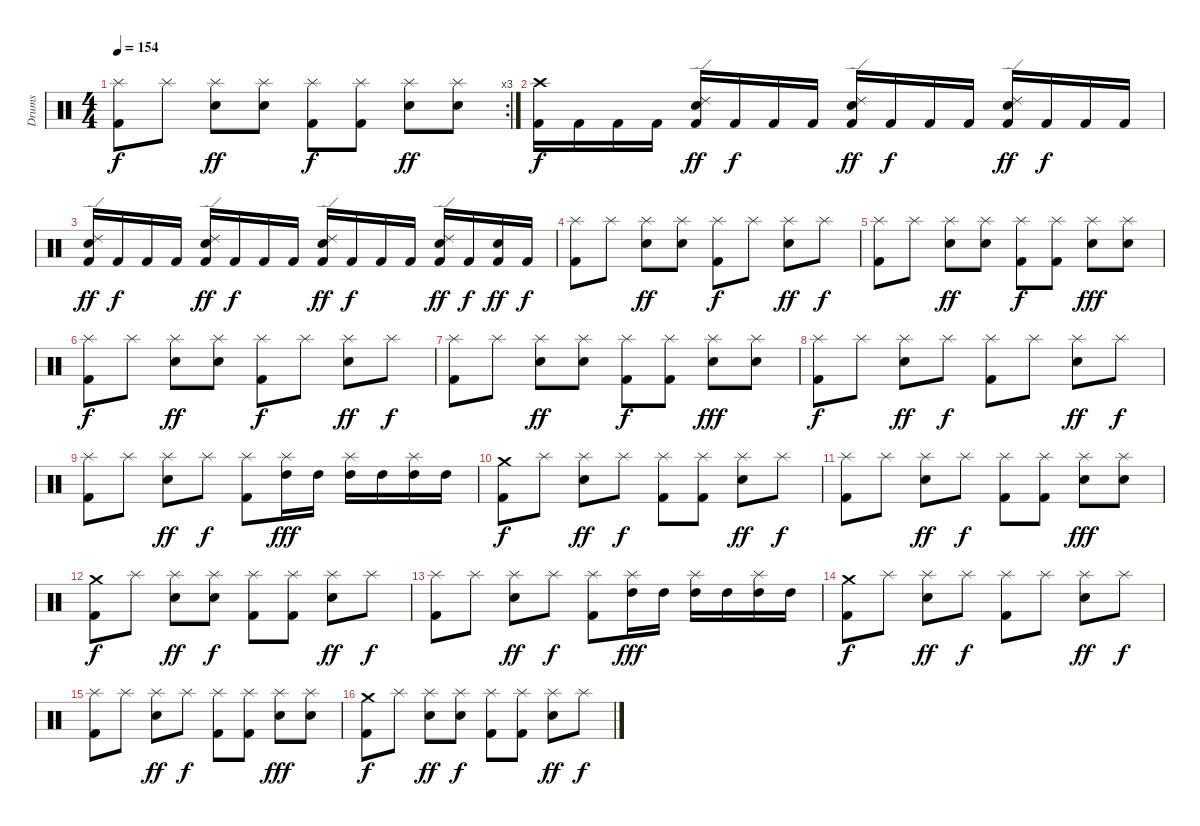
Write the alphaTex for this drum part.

\track ("Drums" "Drums") {instrument percussion}
\staff {score}
\articulation defaults
\rc 3
\ts (4 4)
\tempo 154
\clef neutral
\ks c
("Splash (hit)" "Kick (hit) 2").8{dy f} "Splash (hit)".8 ("Splash (hit)" "Snare (hit) 2").8{dy ff} ("Splash (hit)" "Snare (hit) 2").8 ("Splash (hit)" "Kick (hit) 2").8{dy f} ("Splash (hit)" "Kick (hit) 2").8 ("Splash (hit)" "Snare (hit) 2").8{dy ff} ("Splash (hit)" "Snare (hit) 2").8 |
("Crash high (hit)" "Kick (hit) 2").16{dy f} "Kick (hit) 2".16 "Kick (hit) 2".16 "Kick (hit) 2".16 ("Ride (edge) 2" "Snare (hit) 2" "Kick (hit) 2").16{dy ff} "Kick (hit) 2".16{dy f} "Kick (hit) 2".16 "Kick (hit) 2".16 ("Ride (edge) 2" "Snare (hit) 2" "Kick (hit) 2").16{dy ff} "Kick (hit) 2".16{dy f} "Kick (hit) 2".16 "Kick (hit) 2".16 ("Ride (edge) 2" "Snare (hit) 2" "Kick (hit) 2").16{dy ff} "Kick (hit) 2".16{dy f} "Kick (hit) 2".16 "Kick (hit) 2".16 |
("Ride (edge) 2" "Snare (hit) 2" "Kick (hit) 2").16{dy ff} "Kick (hit) 2".16{dy f} "Kick (hit) 2".16 "Kick (hit) 2".16 ("Ride (edge) 2" "Snare (hit) 2" "Kick (hit) 2").16{dy ff} "Kick (hit) 2".16{dy f} "Kick (hit) 2".16 "Kick (hit) 2".16 ("Ride (edge) 2" "Snare (hit) 2" "Kick (hit) 2").16{dy ff} "Kick (hit) 2".16{dy f} "Kick (hit) 2".16 "Kick (hit) 2".16 ("Ride (edge) 2" "Snare (hit) 2" "Kick (hit) 2").16{dy ff} "Kick (hit) 2".16{dy f} ("Snare (hit) 2" "Kick (hit) 2").16{dy ff} "Kick (hit) 2".16{dy f} |
("Splash (hit)" "Kick (hit) 2").8 "Splash (hit)".8 ("Splash (hit)" "Snare (hit) 2").8{dy ff} ("Splash (hit)" "Snare (hit) 2").8 ("Splash (hit)" "Kick (hit) 2").8{dy f} "Splash (hit)".8 ("Splash (hit)" "Snare (hit) 2").8{dy ff} "Splash (hit)".8{dy f} |
("Splash (hit)" "Kick (hit) 2").8 "Splash (hit)".8 ("Splash (hit)" "Snare (hit) 2").8{dy ff} ("Splash (hit)" "Snare (hit) 2").8 ("Splash (hit)" "Kick (hit) 2").8{dy f} ("Splash (hit)" "Kick (hit) 2").8 ("Splash (hit)" "Snare (hit) 2").8{dy fff} ("Splash (hit)" "Snare (hit) 2").8 |
("Splash (hit)" "Kick (hit) 2").8{dy f} "Splash (hit)".8 ("Splash (hit)" "Snare (hit) 2").8{dy ff} ("Splash (hit)" "Snare (hit) 2").8 ("Splash (hit)" "Kick (hit) 2").8{dy f} "Splash (hit)".8 ("Splash (hit)" "Snare (hit) 2").8{dy ff} "Splash (hit)".8{dy f} |
("Splash (hit)" "Kick (hit) 2").8 "Splash (hit)".8 ("Splash (hit)" "Snare (hit) 2").8{dy ff} ("Splash (hit)" "Snare (hit) 2").8 ("Splash (hit)" "Kick (hit) 2").8{dy f} ("Splash (hit)" "Kick (hit) 2").8 ("Splash (hit)" "Snare (hit) 2").8{dy fff} ("Splash (hit)" "Snare (hit) 2").8 |
("Splash (hit)" "Kick (hit) 2").8{dy f} "Splash (hit)".8 ("Splash (hit)" "Snare (hit) 2").8{dy ff} "Splash (hit)".8{dy f} ("Splash (hit)" "Kick (hit) 2").8 "Splash (hit)".8 ("Splash (hit)" "Snare (hit) 2").8{dy ff} "Splash (hit)".8{dy f} |
("Splash (hit)" "Kick (hit) 2").8 "Splash (hit)".8 ("Splash (hit)" "Snare (hit) 2").8{dy ff} "Splash (hit)".8{dy f} ("Splash (hit)" "Kick (hit) 2").8 ("Splash (hit)" "High Tom (hit)").16{dy fff} "High Tom (hit)".16 ("Splash (hit)" "High Tom (hit)").16 "High Tom (hit)".16 ("Splash (hit)" "High Tom (hit)").16 "High Tom (hit)".16 |
("Crash medium (hit)" "Kick (hit) 2").8{dy f} "Splash (hit)".8 ("Splash (hit)" "Snare (hit) 2").8{dy ff} "Splash (hit)".8{dy f} ("Splash (hit)" "Kick (hit) 2").8 ("Splash (hit)" "Kick (hit) 2").8 ("Splash (hit)" "Snare (hit) 2").8{dy ff} "Splash (hit)".8{dy f} |
("Splash (hit)" "Kick (hit) 2").8 "Splash (hit)".8 ("Splash (hit)" "Snare (hit) 2").8{dy ff} "Splash (hit)".8{dy f} ("Splash (hit)" "Kick (hit) 2").8 ("Splash (hit)" "Kick (hit) 2").8 ("Splash (hit)" "Snare (hit) 2").8{dy fff} ("Splash (hit)" "Snare (hit) 2").8 |
("Crash medium (hit)" "Kick (hit) 2").8{dy f} "Splash (hit)".8 ("Splash (hit)" "Snare (hit) 2").8{dy ff} ("Splash (hit)" "Snare (hit) 2").8{dy f} ("Splash (hit)" "Kick (hit) 2").8 ("Splash (hit)" "Kick (hit) 2").8 ("Splash (hit)" "Snare (hit) 2").8{dy ff} "Splash (hit)".8{dy f} |
("Splash (hit)" "Kick (hit) 2").8 "Splash (hit)".8 ("Splash (hit)" "Snare (hit) 2").8{dy ff} "Splash (hit)".8{dy f} ("Splash (hit)" "Kick (hit) 2").8 ("Splash (hit)" "High Tom (hit)").16{dy fff} "High Tom (hit)".16 ("Splash (hit)" "High Tom (hit)").16 "High Tom (hit)".16 ("Splash (hit)" "High Tom (hit)").16 "High Tom (hit)".16 |
("Crash medium (hit)" "Kick (hit) 2").8{dy f} "Splash (hit)".8 ("Splash (hit)" "Snare (hit) 2").8{dy ff} "Splash (hit)".8{dy f} ("Splash (hit)" "Kick (hit) 2").8 "Splash (hit)".8 ("Splash (hit)" "Snare (hit) 2").8{dy ff} "Splash (hit)".8{dy f} |
("Splash (hit)" "Kick (hit) 2").8 "Splash (hit)".8 ("Splash (hit)" "Snare (hit) 2").8{dy ff} "Splash (hit)".8{dy f} ("Splash (hit)" "Kick (hit) 2").8 ("Splash (hit)" "Kick (hit) 2").8 ("Splash (hit)" "Snare (hit) 2").8{dy fff} ("Splash (hit)" "Snare (hit) 2").8 |
("Crash medium (hit)" "Kick (hit) 2").8{dy f} "Splash (hit)".8 ("Splash (hit)" "Snare (hit) 2").8{dy ff} ("Splash (hit)" "Snare (hit) 2").8{dy f} ("Splash (hit)" "Kick (hit) 2").8 ("Splash (hit)" "Kick (hit) 2").8 ("Splash (hit)" "Snare (hit) 2").8{dy ff} "Splash (hit)".8{dy f}
